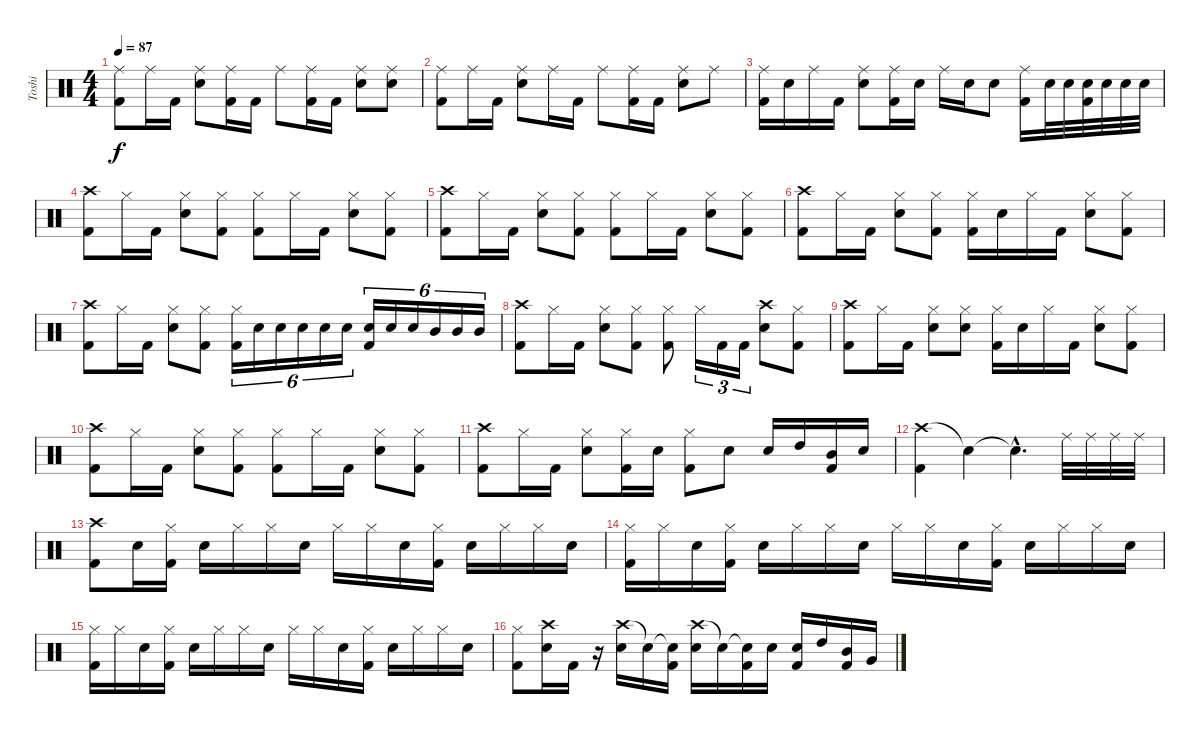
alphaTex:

\track ("Toshi" "Toshi") {instrument percussion}
\staff {score}
\articulation defaults
\ts (4 4)
\tempo 87
\clef neutral
\ks c
("Ride (middle)" "Kick (hit) 2").8{dy f} "Ride (middle)".16 "Kick (hit) 2".16 ("Ride (middle)" "Snare (hit) 2").8 ("Ride (middle)" "Kick (hit) 2").16 "Kick (hit) 2".16 "Ride (middle)".8 ("Ride (middle)" "Kick (hit) 2").16 "Kick (hit) 2".16 ("Ride (middle)" "Snare (hit) 2").8 ("Ride (middle)" "Snare (hit) 2").8 |
("Ride (middle)" "Kick (hit) 2").8 "Ride (middle)".16 "Kick (hit) 2".16 ("Ride (middle)" "Snare (hit) 2").8 "Ride (middle)".16 "Kick (hit) 2".16 "Ride (middle)".8 ("Ride (middle)" "Kick (hit) 2").16 "Kick (hit) 2".16 ("Ride (middle)" "Snare (hit) 2").8 "Ride (middle)".8 |
("Ride (middle)" "Kick (hit) 2").16 "Snare (hit) 2".16 "Ride (middle)".16 "Kick (hit) 2".16 ("Ride (middle)" "Snare (hit) 2").8 ("Ride (middle)" "Kick (hit) 2").16 "Snare (hit) 2".16 "Ride (middle)".16 "Snare (hit) 2".16 "Snare (hit) 2".8 ("Ride (middle)" "Kick (hit) 2").16 "Snare (hit) 2".32 "Snare (hit) 2".32 ("Snare (hit) 2" "Kick (hit) 2").32 "Snare (hit) 2".32 "Snare (hit) 2".32 "Snare (hit) 2".32 |
("Crash high (hit)" "Kick (hit) 2").8 "Hi-Hat (closed)".16 "Kick (hit) 2".16 ("Hi-Hat (closed)" "Snare (hit) 2").8 ("Hi-Hat (closed)" "Kick (hit) 2").8 ("Hi-Hat (closed)" "Kick (hit) 2").8 "Hi-Hat (closed)".16 "Kick (hit) 2".16 ("Hi-Hat (closed)" "Snare (hit) 2").8 ("Hi-Hat (closed)" "Kick (hit) 2").8 |
("Crash high (hit)" "Kick (hit) 2").8 "Hi-Hat (closed)".16 "Kick (hit) 2".16 ("Hi-Hat (closed)" "Snare (hit) 2").8 ("Hi-Hat (closed)" "Kick (hit) 2").8 ("Hi-Hat (closed)" "Kick (hit) 2").8 "Hi-Hat (closed)".16 "Kick (hit) 2".16 ("Hi-Hat (closed)" "Snare (hit) 2").8 ("Hi-Hat (closed)" "Kick (hit) 2").8 |
("Crash high (hit)" "Kick (hit) 2").8 "Hi-Hat (closed)".16 "Kick (hit) 2".16 ("Hi-Hat (closed)" "Snare (hit) 2").8 ("Hi-Hat (closed)" "Kick (hit) 2").8 ("Hi-Hat (closed)" "Kick (hit) 2").16 "Snare (hit) 2".16 "Hi-Hat (closed)".16 "Kick (hit) 2".16 ("Hi-Hat (closed)" "Snare (hit) 2").8 ("Hi-Hat (closed)" "Kick (hit) 2").8 |
("Crash high (hit)" "Kick (hit) 2").8 "Hi-Hat (closed)".16 "Kick (hit) 2".16 ("Hi-Hat (closed)" "Snare (hit) 2").8 ("Hi-Hat (closed)" "Kick (hit) 2").8 ("Hi-Hat (closed)" "Kick (hit) 2").16{tu (6 4)} "Snare (hit) 2".16{tu (6 4)} "Snare (hit) 2".16{tu (6 4)} "Snare (hit) 2".16{tu (6 4)} "Snare (hit) 2".16{tu (6 4)} "Snare (hit) 2".16{tu (6 4)} ("Snare (hit) 2" "Kick (hit) 2").16{tu (6 4)} "Snare (hit) 2".16{tu (6 4)} "Snare (hit) 2".16{tu (6 4)} "Mid Tom (hit)".16{tu (6 4)} "Mid Tom (hit)".16{tu (6 4)} "Mid Tom (hit)".16{tu (6 4)} |
("Crash high (hit)" "Kick (hit) 2").8 "Hi-Hat (closed)".16 "Kick (hit) 2".16 ("Hi-Hat (closed)" "Snare (hit) 2").8 ("Hi-Hat (closed)" "Kick (hit) 2").8 ("Hi-Hat (closed)" "Kick (hit) 2").8 "Hi-Hat (closed)".16{tu (3 2)} "Kick (hit) 2".16{tu (3 2)} "Kick (hit) 2".16{tu (3 2)} ("Crash high (hit)" "Snare (hit) 2").8 ("Hi-Hat (closed)" "Kick (hit) 2").8 |
("Crash high (hit)" "Kick (hit) 2").8 "Hi-Hat (closed)".16 "Kick (hit) 2".16 ("Hi-Hat (closed)" "Snare (hit) 2").8 ("Hi-Hat (closed)" "Snare (hit) 2").8 ("Hi-Hat (closed)" "Kick (hit) 2").16 "Snare (hit) 2".16 "Hi-Hat (closed)".16 "Kick (hit) 2".16 ("Hi-Hat (closed)" "Snare (hit) 2").8 ("Hi-Hat (closed)" "Kick (hit) 2").8 |
("Crash high (hit)" "Kick (hit) 2").8 "Hi-Hat (closed)".16 "Kick (hit) 2".16 ("Hi-Hat (closed)" "Snare (hit) 2").8 ("Hi-Hat (closed)" "Kick (hit) 2").8 ("Hi-Hat (closed)" "Kick (hit) 2").8 "Hi-Hat (closed)".16 "Kick (hit) 2".16 ("Hi-Hat (closed)" "Snare (hit) 2").8 ("Hi-Hat (closed)" "Kick (hit) 2").8 |
("Crash high (hit)" "Kick (hit) 2").8 "Hi-Hat (closed)".16 "Kick (hit) 2".16 ("Hi-Hat (closed)" "Snare (hit) 2").8 ("Hi-Hat (closed)" "Kick (hit) 2").16 "Snare (hit) 2".16 ("Hi-Hat (closed)" "Kick (hit) 2").8 "Snare (hit) 2".8 "Snare (hit) 2".16 "High Tom (hit)".16 ("Mid Tom (hit)" "Kick (hit) 2").16 "Metronome (bell)".16 |
("Crash high (hit)" "Kick (hit) 2").4 "Snare (hit)"{t}.4 "Snare (hit)"{hac t}.4{d} "Ride (middle)".32 "Ride (middle)".32 "Ride (middle)".32 "Ride (middle)".32 |
("Crash high (hit)" "Kick (hit) 2").8 "Snare (hit) 2".16 ("Hi-Hat (closed)" "Kick (hit) 2").16 "Snare (hit) 2".16 "Hi-Hat (closed)".16 "Hi-Hat (closed)".16 "Snare (hit) 2".16 "Hi-Hat (closed)".16 "Hi-Hat (closed)".16 "Snare (hit) 2".16 ("Hi-Hat (closed)" "Kick (hit) 2").16 "Snare (hit) 2".16 "Hi-Hat (closed)".16 "Hi-Hat (closed)".16 "Snare (hit) 2".16 |
("Hi-Hat (closed)" "Kick (hit) 2").16 "Hi-Hat (closed)".16 "Snare (hit) 2".16 ("Hi-Hat (closed)" "Kick (hit) 2").16 "Snare (hit) 2".16 "Hi-Hat (closed)".16 "Hi-Hat (closed)".16 "Snare (hit) 2".16 "Hi-Hat (closed)".16 "Hi-Hat (closed)".16 "Snare (hit) 2".16 ("Hi-Hat (closed)" "Kick (hit) 2").16 "Snare (hit) 2".16 "Hi-Hat (closed)".16 "Hi-Hat (closed)".16 "Snare (hit) 2".16 |
("Hi-Hat (closed)" "Kick (hit) 2").16 "Hi-Hat (closed)".16 "Snare (hit) 2".16 ("Hi-Hat (closed)" "Kick (hit) 2").16 "Snare (hit) 2".16 "Hi-Hat (closed)".16 "Hi-Hat (closed)".16 "Snare (hit) 2".16 "Hi-Hat (closed)".16 "Hi-Hat (closed)".16 "Snare (hit) 2".16 ("Hi-Hat (closed)" "Kick (hit) 2").16 "Snare (hit) 2".16 "Hi-Hat (closed)".16 "Hi-Hat (closed)".16 "Snare (hit) 2".16 |
("Hi-Hat (closed)" "Kick (hit) 2").8 ("Crash high (hit)" "Snare (hit) 2").16 "Kick (hit) 2".16 r.16 ("Crash high (hit)" "Snare (hit) 2").16 "Snare (hit)"{t}.16 ("Snare (hit)"{t} "Kick (hit) 2").16 ("Crash high (hit)" "Snare (hit) 2").16 "Snare (hit)"{t}.16 ("Snare (hit)"{t} "Kick (hit) 2").16 "Snare (hit) 2".16 ("Snare (hit) 2" "Kick (hit) 2").16 "High Tom (hit)".16 ("Mid Tom (hit)" "Kick (hit) 2").16 "Very Low Tom (hit)".16
